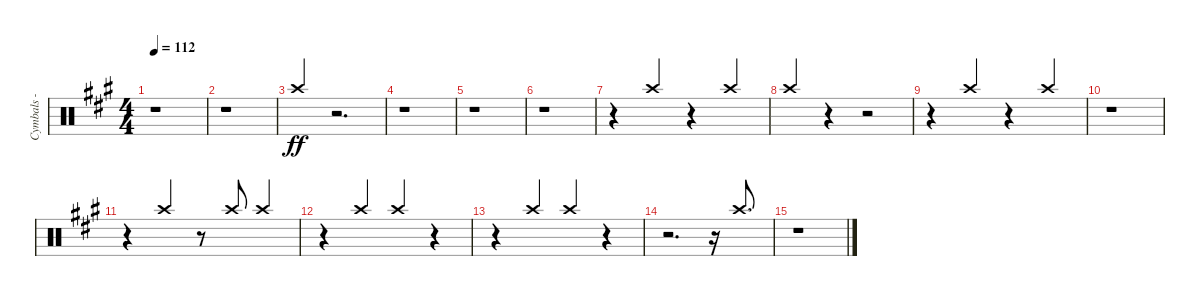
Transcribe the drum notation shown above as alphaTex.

\track ("Cymbals - crash" "Cymbals - ") {instrument percussion}
\staff {score}
\articulation defaults
\ts (4 4)
\tempo 112
\clef neutral
\ks f#minor
r.1{dy ff} |
r.1 |
"Crash high (hit)".4{beam Up} r.2{d} |
r.1 |
r.1 |
r.1 |
r.4{balance 4} "Crash high (hit)".4{beam Up} r.4 "Crash high (hit)".4{beam Up} |
"Crash high (hit)".4{beam Up} r.4 r.2 |
r.4 "Crash high (hit)".4{beam Up} r.4 "Crash high (hit)".4{beam Up} |
r.1 |
r.4 "Crash high (hit)".4{beam Up} r.8 "Crash high (hit)".8{beam Up} "Crash high (hit)".4{beam Up} |
r.4 "Crash high (hit)".4{beam Up} "Crash high (hit)".4{beam Up} r.4 |
r.4 "Crash high (hit)".4{beam Up} "Crash high (hit)".4{beam Up} r.4 |
r.2{d} r.16 "Crash high (hit)".8{d volume 0 beam Up} |
r.1
